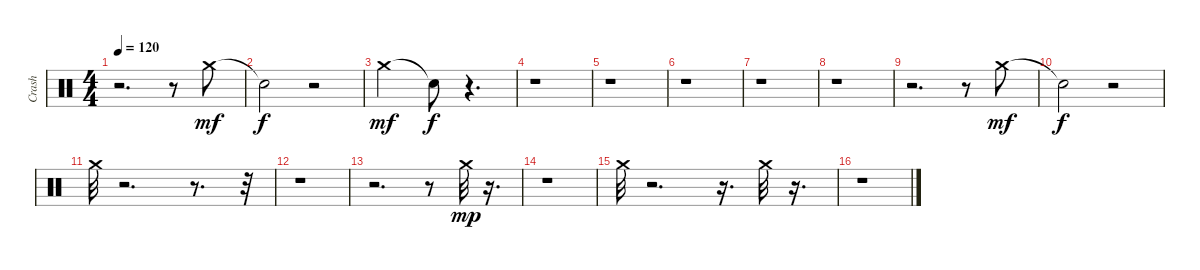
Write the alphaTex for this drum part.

\track ("Crash" "Crash") {instrument percussion}
\staff {score}
\articulation defaults
\ts (4 4)
\tempo 120
\clef neutral
\ks c
r.2{d dy f} r.8 "Crash medium (hit)".8{dy mf} |
"Snare (hit)"{t}.2{dy f} r.2 |
"Crash medium (hit)".2{dy mf} "Snare (hit)"{t}.8{dy f} r.4{d} |
r.1 |
r.1 |
r.1 |
r.1 |
r.1 |
r.2{d} r.8 "Crash medium (hit)".8{dy mf} |
"Snare (hit)"{t}.2{dy f} r.2 |
"Crash medium (hit)".32 r.2{d} r.8{d} r.32 |
r.1 |
r.2{d} r.8 "Crash medium (hit)".32{dy mp} r.16{d} |
r.1 |
"Crash medium (hit)".32 r.2{d} r.16{d} "Crash medium (hit)".32 r.16{d} |
r.1
